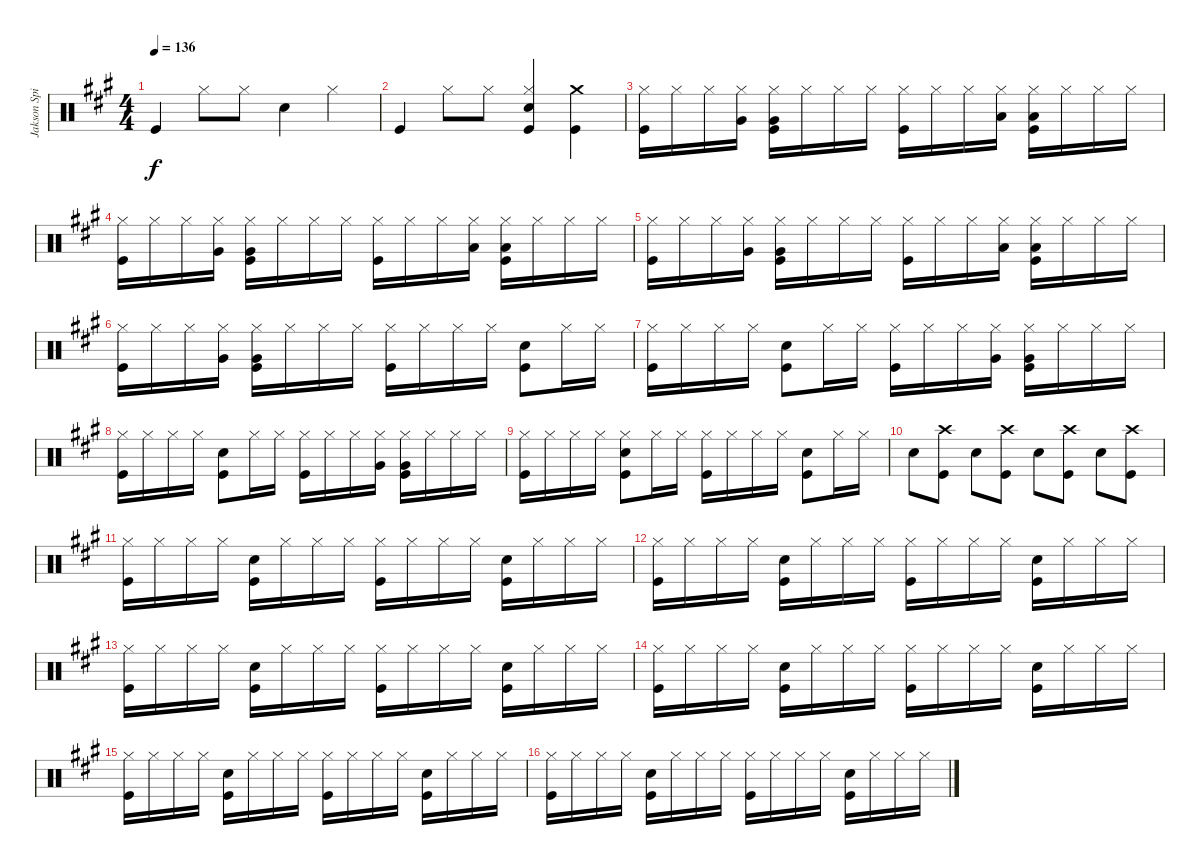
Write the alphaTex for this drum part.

\track ("Jakson Spires Drums" "Jakson Spi") {instrument percussion}
\staff {score}
\articulation defaults
\ts (4 4)
\tempo 136
\clef neutral
\ks a "Kick (hit)".4{dy f} "Hi-Hat (closed)".8 "Hi-Hat (closed)".8 "Snare (hit) 2".4 "Hi-Hat (closed)".4
|
"Kick (hit)".4 "Hi-Hat (closed)".8 "Hi-Hat (closed)".8 ("Hi-Hat (closed)" "Snare (hit) 2" "Kick (hit)").4 ("Crash medium (hit)" "Kick (hit)").4 |
("Hi-Hat (closed)" "Kick (hit)").16 "Hi-Hat (closed)".16 "Hi-Hat (closed)".16 ("Hi-Hat (closed)" "Very Low Tom (hit)").16 ("Hi-Hat (closed)" "Very Low Tom (hit)" "Kick (hit)").16 "Hi-Hat (closed)".16 "Hi-Hat (closed)".16 "Hi-Hat (closed)".16 ("Hi-Hat (closed)" "Kick (hit)").16 "Hi-Hat (closed)".16 "Hi-Hat (closed)".16 ("Hi-Hat (closed)" "Low Floor Tom (hit)").16 ("Hi-Hat (closed)" "Low Floor Tom (hit)" "Kick (hit)").16 "Hi-Hat (closed)".16 "Hi-Hat (closed)".16 "Hi-Hat (closed)".16 |
("Hi-Hat (closed)" "Kick (hit)").16 "Hi-Hat (closed)".16 "Hi-Hat (closed)".16 ("Hi-Hat (closed)" "Very Low Tom (hit)").16 ("Hi-Hat (closed)" "Very Low Tom (hit)" "Kick (hit)").16 "Hi-Hat (closed)".16 "Hi-Hat (closed)".16 "Hi-Hat (closed)".16 ("Hi-Hat (closed)" "Kick (hit)").16 "Hi-Hat (closed)".16 "Hi-Hat (closed)".16 ("Hi-Hat (closed)" "Low Floor Tom (hit)").16 ("Hi-Hat (closed)" "Low Floor Tom (hit)" "Kick (hit)").16 "Hi-Hat (closed)".16 "Hi-Hat (closed)".16 "Hi-Hat (closed)".16 |
("Hi-Hat (closed)" "Kick (hit)").16 "Hi-Hat (closed)".16 "Hi-Hat (closed)".16 ("Hi-Hat (closed)" "Very Low Tom (hit)").16 ("Hi-Hat (closed)" "Very Low Tom (hit)" "Kick (hit)").16 "Hi-Hat (closed)".16 "Hi-Hat (closed)".16 "Hi-Hat (closed)".16 ("Hi-Hat (closed)" "Kick (hit)").16 "Hi-Hat (closed)".16 "Hi-Hat (closed)".16 ("Hi-Hat (closed)" "Low Floor Tom (hit)").16 ("Hi-Hat (closed)" "Low Floor Tom (hit)" "Kick (hit)").16 "Hi-Hat (closed)".16 "Hi-Hat (closed)".16 "Hi-Hat (closed)".16 |
("Hi-Hat (closed)" "Kick (hit)").16 "Hi-Hat (closed)".16 "Hi-Hat (closed)".16 ("Hi-Hat (closed)" "Very Low Tom (hit)").16 ("Hi-Hat (closed)" "Very Low Tom (hit)" "Kick (hit)").16 "Hi-Hat (closed)".16 "Hi-Hat (closed)".16 "Hi-Hat (closed)".16 ("Hi-Hat (closed)" "Kick (hit)").16 "Hi-Hat (closed)".16 "Hi-Hat (closed)".16 "Hi-Hat (closed)".16 ("Snare (hit) 2" "Kick (hit)").8 "Hi-Hat (closed)".16 "Hi-Hat (closed)".16 |
("Hi-Hat (closed)" "Kick (hit)").16 "Hi-Hat (closed)".16 "Hi-Hat (closed)".16 "Hi-Hat (closed)".16 ("Snare (hit) 2" "Kick (hit)").8 "Hi-Hat (closed)".16 "Hi-Hat (closed)".16 ("Hi-Hat (closed)" "Kick (hit)").16 "Hi-Hat (closed)".16 "Hi-Hat (closed)".16 ("Hi-Hat (closed)" "Very Low Tom (hit)").16 ("Hi-Hat (closed)" "Very Low Tom (hit)" "Kick (hit)").16 "Hi-Hat (closed)".16 "Hi-Hat (closed)".16 "Hi-Hat (closed)".16 |
("Hi-Hat (closed)" "Kick (hit)").16 "Hi-Hat (closed)".16 "Hi-Hat (closed)".16 "Hi-Hat (closed)".16 ("Snare (hit) 2" "Kick (hit)").8 "Hi-Hat (closed)".16 "Hi-Hat (closed)".16 ("Hi-Hat (closed)" "Kick (hit)").16 "Hi-Hat (closed)".16 "Hi-Hat (closed)".16 ("Hi-Hat (closed)" "Very Low Tom (hit)").16 ("Hi-Hat (closed)" "Very Low Tom (hit)" "Kick (hit)").16 "Hi-Hat (closed)".16 "Hi-Hat (closed)".16 "Hi-Hat (closed)".16 |
("Hi-Hat (closed)" "Kick (hit)").16 "Hi-Hat (closed)".16 "Hi-Hat (closed)".16 "Hi-Hat (closed)".16 ("Hi-Hat (closed)" "Snare (hit) 2" "Kick (hit)").8 "Hi-Hat (closed)".16 "Hi-Hat (closed)".16 ("Hi-Hat (closed)" "Kick (hit)").16 "Hi-Hat (closed)".16 "Hi-Hat (closed)".16 "Hi-Hat (closed)".16 ("Snare (hit) 2" "Kick (hit)").8 "Hi-Hat (closed)".16 "Hi-Hat (closed)".16 |
"Snare (hit) 2".8 ("Crash high (hit)" "Kick (hit)").8 "Snare (hit) 2".8 ("Crash high (hit)" "Kick (hit)").8 "Snare (hit) 2".8 ("Crash high (hit)" "Kick (hit)").8 "Snare (hit) 2".8 ("Crash high (hit)" "Kick (hit)").8 |
("Hi-Hat (closed)" "Kick (hit)").16 "Hi-Hat (closed)".16 "Hi-Hat (closed)".16 "Hi-Hat (closed)".16 ("Snare (hit) 2" "Kick (hit)").16 "Hi-Hat (closed)".16 "Hi-Hat (closed)".16 "Hi-Hat (closed)".16 ("Hi-Hat (closed)" "Kick (hit)").16 "Hi-Hat (closed)".16 "Hi-Hat (closed)".16 "Hi-Hat (closed)".16 ("Snare (hit) 2" "Kick (hit)").16 "Hi-Hat (closed)".16 "Hi-Hat (closed)".16 "Hi-Hat (closed)".16 |
("Hi-Hat (closed)" "Kick (hit)").16 "Hi-Hat (closed)".16 "Hi-Hat (closed)".16 "Hi-Hat (closed)".16 ("Snare (hit) 2" "Kick (hit)").16 "Hi-Hat (closed)".16 "Hi-Hat (closed)".16 "Hi-Hat (closed)".16 ("Hi-Hat (closed)" "Kick (hit)").16 "Hi-Hat (closed)".16 "Hi-Hat (closed)".16 "Hi-Hat (closed)".16 ("Snare (hit) 2" "Kick (hit)").16 "Hi-Hat (closed)".16 "Hi-Hat (closed)".16 "Hi-Hat (closed)".16 |
("Hi-Hat (closed)" "Kick (hit)").16 "Hi-Hat (closed)".16 "Hi-Hat (closed)".16 "Hi-Hat (closed)".16 ("Snare (hit) 2" "Kick (hit)").16 "Hi-Hat (closed)".16 "Hi-Hat (closed)".16 "Hi-Hat (closed)".16 ("Hi-Hat (closed)" "Kick (hit)").16 "Hi-Hat (closed)".16 "Hi-Hat (closed)".16 "Hi-Hat (closed)".16 ("Snare (hit) 2" "Kick (hit)").16 "Hi-Hat (closed)".16 "Hi-Hat (closed)".16 "Hi-Hat (closed)".16 |
("Hi-Hat (closed)" "Kick (hit)").16 "Hi-Hat (closed)".16 "Hi-Hat (closed)".16 "Hi-Hat (closed)".16 ("Snare (hit) 2" "Kick (hit)").16 "Hi-Hat (closed)".16 "Hi-Hat (closed)".16 "Hi-Hat (closed)".16 ("Hi-Hat (closed)" "Kick (hit)").16 "Hi-Hat (closed)".16 "Hi-Hat (closed)".16 "Hi-Hat (closed)".16 ("Snare (hit) 2" "Kick (hit)").16 "Hi-Hat (closed)".16 "Hi-Hat (closed)".16 "Hi-Hat (closed)".16 |
("Hi-Hat (closed)" "Kick (hit)").16 "Hi-Hat (closed)".16 "Hi-Hat (closed)".16 "Hi-Hat (closed)".16 ("Snare (hit) 2" "Kick (hit)").16 "Hi-Hat (closed)".16 "Hi-Hat (closed)".16 "Hi-Hat (closed)".16 ("Hi-Hat (closed)" "Kick (hit)").16 "Hi-Hat (closed)".16 "Hi-Hat (closed)".16 "Hi-Hat (closed)".16 ("Snare (hit) 2" "Kick (hit)").16 "Hi-Hat (closed)".16 "Hi-Hat (closed)".16 "Hi-Hat (closed)".16 |
("Hi-Hat (closed)" "Kick (hit)").16 "Hi-Hat (closed)".16 "Hi-Hat (closed)".16 "Hi-Hat (closed)".16 ("Snare (hit) 2" "Kick (hit)").16 "Hi-Hat (closed)".16 "Hi-Hat (closed)".16 "Hi-Hat (closed)".16 ("Hi-Hat (closed)" "Kick (hit)").16 "Hi-Hat (closed)".16 "Hi-Hat (closed)".16 "Hi-Hat (closed)".16 ("Snare (hit) 2" "Kick (hit)").16 "Hi-Hat (closed)".16 "Hi-Hat (closed)".16 "Hi-Hat (closed)".16
